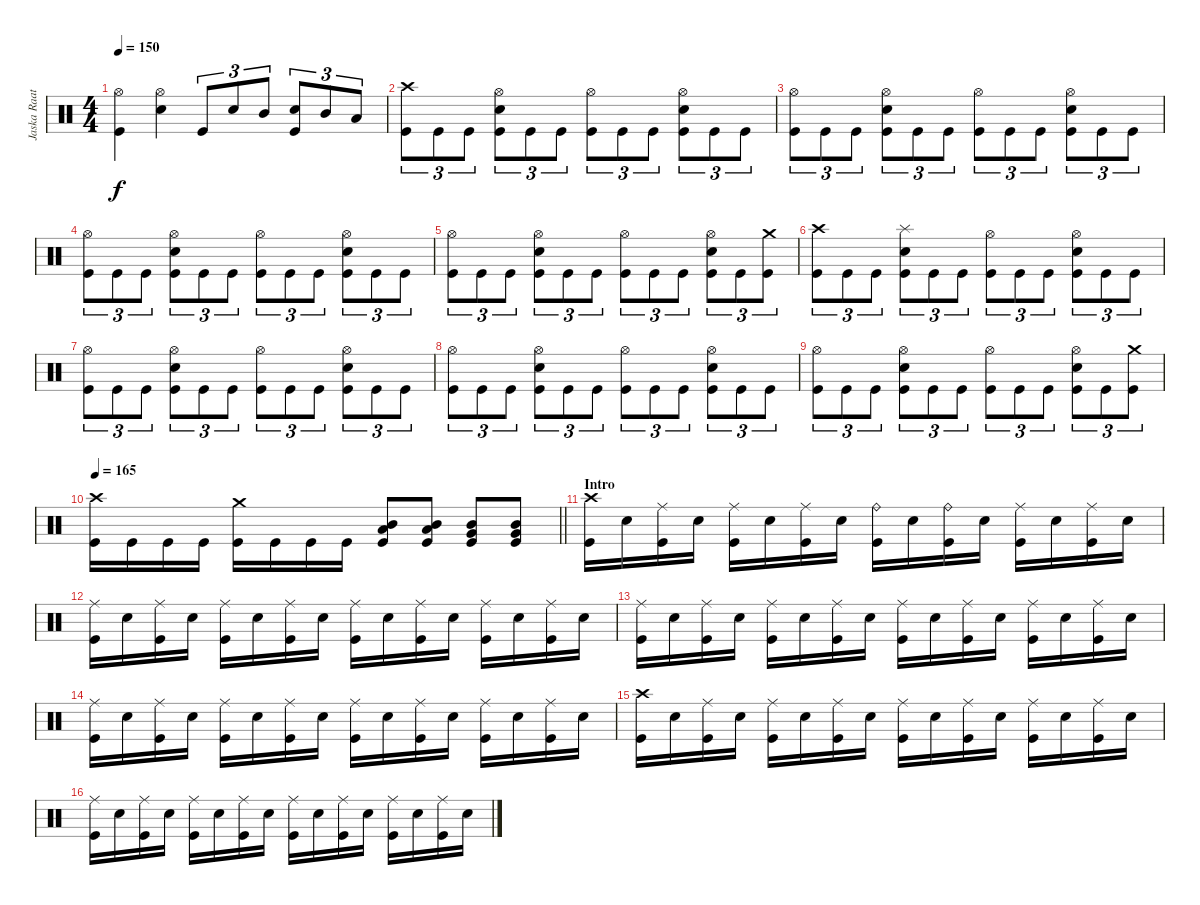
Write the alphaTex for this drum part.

\track ("Jaska Raatikainen" "Jaska Raat") {instrument percussion}
\staff {score}
\articulation defaults
\ts (4 4)
\tempo 150
\clef neutral
\ks c
("Hi-Hat (open)" "Kick (hit)").4{dy f} ("Hi-Hat (open)" "Electric Snare (hit)").4 "Kick (hit)".8{tu (3 2)} "Electric Snare (hit)".8{tu (3 2)} "Mid Tom (hit)".8{tu (3 2)} ("Electric Snare (hit)" "Kick (hit)").8{tu (3 2)} "Mid Tom (hit)".8{tu (3 2)} "Low Tom (hit)".8{tu (3 2)} |
("Crash high (hit)" "Kick (hit)").8{tu (3 2)} "Kick (hit)".8{tu (3 2)} "Kick (hit)".8{tu (3 2)} ("Hi-Hat (open)" "Electric Snare (hit)" "Kick (hit)").8{tu (3 2)} "Kick (hit)".8{tu (3 2)} "Kick (hit)".8{tu (3 2)} ("Hi-Hat (open)" "Kick (hit)").8{tu (3 2)} "Kick (hit)".8{tu (3 2)} "Kick (hit)".8{tu (3 2)} ("Hi-Hat (open)" "Electric Snare (hit)" "Kick (hit)").8{tu (3 2)} "Kick (hit)".8{tu (3 2)} "Kick (hit)".8{tu (3 2)} |
("Hi-Hat (open)" "Kick (hit)").8{tu (3 2)} "Kick (hit)".8{tu (3 2)} "Kick (hit)".8{tu (3 2)} ("Hi-Hat (open)" "Electric Snare (hit)" "Kick (hit)").8{tu (3 2)} "Kick (hit)".8{tu (3 2)} "Kick (hit)".8{tu (3 2)} ("Hi-Hat (open)" "Kick (hit)").8{tu (3 2)} "Kick (hit)".8{tu (3 2)} "Kick (hit)".8{tu (3 2)} ("Hi-Hat (open)" "Electric Snare (hit)" "Kick (hit)").8{tu (3 2)} "Kick (hit)".8{tu (3 2)} "Kick (hit)".8{tu (3 2)} |
("Hi-Hat (open)" "Kick (hit)").8{tu (3 2)} "Kick (hit)".8{tu (3 2)} "Kick (hit)".8{tu (3 2)} ("Hi-Hat (open)" "Electric Snare (hit)" "Kick (hit)").8{tu (3 2)} "Kick (hit)".8{tu (3 2)} "Kick (hit)".8{tu (3 2)} ("Hi-Hat (open)" "Kick (hit)").8{tu (3 2)} "Kick (hit)".8{tu (3 2)} "Kick (hit)".8{tu (3 2)} ("Hi-Hat (open)" "Electric Snare (hit)" "Kick (hit)").8{tu (3 2)} "Kick (hit)".8{tu (3 2)} "Kick (hit)".8{tu (3 2)} |
("Hi-Hat (open)" "Kick (hit)").8{tu (3 2)} "Kick (hit)".8{tu (3 2)} "Kick (hit)".8{tu (3 2)} ("Hi-Hat (open)" "Electric Snare (hit)" "Kick (hit)").8{tu (3 2)} "Kick (hit)".8{tu (3 2)} "Kick (hit)".8{tu (3 2)} ("Hi-Hat (open)" "Kick (hit)").8{tu (3 2)} "Kick (hit)".8{tu (3 2)} "Kick (hit)".8{tu (3 2)} ("Hi-Hat (open)" "Electric Snare (hit)" "Kick (hit)").8{tu (3 2)} "Kick (hit)".8{tu (3 2)} ("Crash medium (hit)" "Kick (hit)").8{tu (3 2)} |
("Crash high (hit)" "Kick (hit)").8{tu (3 2)} "Kick (hit)".8{tu (3 2)} "Kick (hit)".8{tu (3 2)} ("Splash (hit)" "Electric Snare (hit)" "Kick (hit)").8{tu (3 2)} "Kick (hit)".8{tu (3 2)} "Kick (hit)".8{tu (3 2)} ("Hi-Hat (open)" "Kick (hit)").8{tu (3 2)} "Kick (hit)".8{tu (3 2)} "Kick (hit)".8{tu (3 2)} ("Hi-Hat (open)" "Electric Snare (hit)" "Kick (hit)").8{tu (3 2)} "Kick (hit)".8{tu (3 2)} "Kick (hit)".8{tu (3 2)} |
("Hi-Hat (open)" "Kick (hit)").8{tu (3 2)} "Kick (hit)".8{tu (3 2)} "Kick (hit)".8{tu (3 2)} ("Hi-Hat (open)" "Electric Snare (hit)" "Kick (hit)").8{tu (3 2)} "Kick (hit)".8{tu (3 2)} "Kick (hit)".8{tu (3 2)} ("Hi-Hat (open)" "Kick (hit)").8{tu (3 2)} "Kick (hit)".8{tu (3 2)} "Kick (hit)".8{tu (3 2)} ("Hi-Hat (open)" "Electric Snare (hit)" "Kick (hit)").8{tu (3 2)} "Kick (hit)".8{tu (3 2)} "Kick (hit)".8{tu (3 2)} |
("Hi-Hat (open)" "Kick (hit)").8{tu (3 2)} "Kick (hit)".8{tu (3 2)} "Kick (hit)".8{tu (3 2)} ("Hi-Hat (open)" "Electric Snare (hit)" "Kick (hit)").8{tu (3 2)} "Kick (hit)".8{tu (3 2)} "Kick (hit)".8{tu (3 2)} ("Hi-Hat (open)" "Kick (hit)").8{tu (3 2)} "Kick (hit)".8{tu (3 2)} "Kick (hit)".8{tu (3 2)} ("Hi-Hat (open)" "Electric Snare (hit)" "Kick (hit)").8{tu (3 2)} "Kick (hit)".8{tu (3 2)} "Kick (hit)".8{tu (3 2)} |
("Hi-Hat (open)" "Kick (hit)").8{tu (3 2)} "Kick (hit)".8{tu (3 2)} "Kick (hit)".8{tu (3 2)} ("Hi-Hat (open)" "Electric Snare (hit)" "Kick (hit)").8{tu (3 2)} "Kick (hit)".8{tu (3 2)} "Kick (hit)".8{tu (3 2)} ("Hi-Hat (open)" "Kick (hit)").8{tu (3 2)} "Kick (hit)".8{tu (3 2)} "Kick (hit)".8{tu (3 2)} ("Hi-Hat (open)" "Electric Snare (hit)" "Kick (hit)").8{tu (3 2)} "Kick (hit)".8{tu (3 2)} ("Crash medium (hit)" "Kick (hit)").8{tu (3 2)} |
\tempo 165
\barLineRight lightlight
("Crash high (hit)" "Kick (hit)").16 "Kick (hit)".16 "Kick (hit)".16 "Kick (hit)".16 ("Crash medium (hit)" "Kick (hit)").16 "Kick (hit)".16 "Kick (hit)".16 "Kick (hit)".16 ("Mid Tom (hit)" "Low Tom (hit)" "Kick (hit)").8 ("Mid Tom (hit)" "Low Tom (hit)" "Kick (hit)").8 ("Mid Tom (hit)" "Very Low Tom (hit)" "Kick (hit)").8 ("Mid Tom (hit)" "Very Low Tom (hit)" "Kick (hit)").8 |
\section ("" "Intro")
("Crash high (hit)" "Kick (hit)").16 "Electric Snare (hit)".16 ("Ride (middle)" "Kick (hit)").16 "Electric Snare (hit)".16 ("Ride (middle)" "Kick (hit)").16 "Electric Snare (hit)".16 ("Ride (middle)" "Kick (hit)").16 "Electric Snare (hit)".16 ("Ride (bell)" "Kick (hit)").16 "Electric Snare (hit)".16 ("Ride (bell)" "Kick (hit)").16 "Electric Snare (hit)".16 ("Ride (middle)" "Kick (hit)").16 "Electric Snare (hit)".16 ("Ride (middle)" "Kick (hit)").16 "Electric Snare (hit)".16 |
("Ride (middle)" "Kick (hit)").16 "Electric Snare (hit)".16 ("Ride (middle)" "Kick (hit)").16 "Electric Snare (hit)".16 ("Ride (middle)" "Kick (hit)").16 "Electric Snare (hit)".16 ("Ride (middle)" "Kick (hit)").16 "Electric Snare (hit)".16 ("Ride (middle)" "Kick (hit)").16 "Electric Snare (hit)".16 ("Ride (middle)" "Kick (hit)").16 "Electric Snare (hit)".16 ("Ride (middle)" "Kick (hit)").16 "Electric Snare (hit)".16 ("Ride (middle)" "Kick (hit)").16 "Electric Snare (hit)".16 |
("Ride (middle)" "Kick (hit)").16 "Electric Snare (hit)".16 ("Ride (middle)" "Kick (hit)").16 "Electric Snare (hit)".16 ("Ride (middle)" "Kick (hit)").16 "Electric Snare (hit)".16 ("Ride (middle)" "Kick (hit)").16 "Electric Snare (hit)".16 ("Ride (middle)" "Kick (hit)").16 "Electric Snare (hit)".16 ("Ride (middle)" "Kick (hit)").16 "Electric Snare (hit)".16 ("Ride (middle)" "Kick (hit)").16 "Electric Snare (hit)".16 ("Ride (middle)" "Kick (hit)").16 "Electric Snare (hit)".16 |
("Ride (middle)" "Kick (hit)").16 "Electric Snare (hit)".16 ("Ride (middle)" "Kick (hit)").16 "Electric Snare (hit)".16 ("Ride (middle)" "Kick (hit)").16 "Electric Snare (hit)".16 ("Ride (middle)" "Kick (hit)").16 "Electric Snare (hit)".16 ("Ride (middle)" "Kick (hit)").16 "Electric Snare (hit)".16 ("Ride (middle)" "Kick (hit)").16 "Electric Snare (hit)".16 ("Ride (middle)" "Kick (hit)").16 "Electric Snare (hit)".16 ("Ride (middle)" "Kick (hit)").16 "Electric Snare (hit)".16 |
("Crash high (hit)" "Kick (hit)").16 "Electric Snare (hit)".16 ("Ride (middle)" "Kick (hit)").16 "Electric Snare (hit)".16 ("Ride (middle)" "Kick (hit)").16 "Electric Snare (hit)".16 ("Ride (middle)" "Kick (hit)").16 "Electric Snare (hit)".16 ("Ride (middle)" "Kick (hit)").16 "Electric Snare (hit)".16 ("Ride (middle)" "Kick (hit)").16 "Electric Snare (hit)".16 ("Ride (middle)" "Kick (hit)").16 "Electric Snare (hit)".16 ("Ride (middle)" "Kick (hit)").16 "Electric Snare (hit)".16 |
("Ride (middle)" "Kick (hit)").16 "Electric Snare (hit)".16 ("Ride (middle)" "Kick (hit)").16 "Electric Snare (hit)".16 ("Ride (middle)" "Kick (hit)").16 "Electric Snare (hit)".16 ("Ride (middle)" "Kick (hit)").16 "Electric Snare (hit)".16 ("Ride (middle)" "Kick (hit)").16 "Electric Snare (hit)".16 ("Ride (middle)" "Kick (hit)").16 "Electric Snare (hit)".16 ("Ride (middle)" "Kick (hit)").16 "Electric Snare (hit)".16 ("Ride (middle)" "Kick (hit)").16 "Electric Snare (hit)".16
